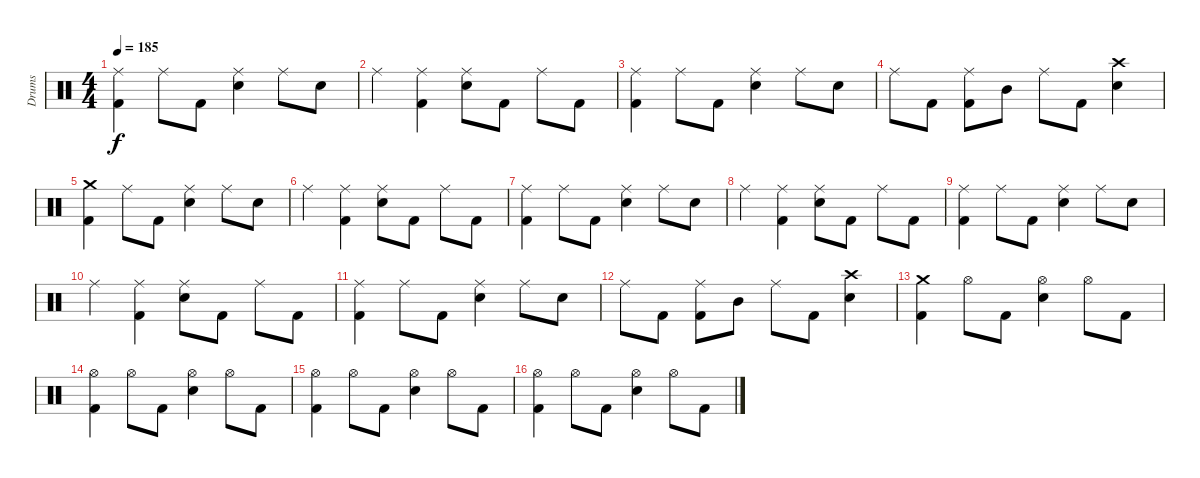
\track ("Drums" "Drums") {instrument percussion}
\staff {score}
\articulation defaults
\ts (4 4)
\tempo 185
\clef neutral
\ks c
("Ride (middle)" "Kick (hit) 2").4{dy f} "Ride (middle)".8 "Kick (hit) 2".8 ("Ride (middle)" "Electric Snare (hit)").4 "Ride (middle)".8 "Electric Snare (hit)".8 |
"Ride (middle)".4 ("Ride (middle)" "Kick (hit) 2").4 ("Ride (middle)" "Electric Snare (hit)").8 "Kick (hit) 2".8 "Ride (middle)".8 "Kick (hit) 2".8 |
("Ride (middle)" "Kick (hit) 2").4 "Ride (middle)".8 "Kick (hit) 2".8 ("Ride (middle)" "Electric Snare (hit)").4 "Ride (middle)".8 "Electric Snare (hit)".8 |
"Ride (middle)".8 "Kick (hit) 2".8 ("Ride (middle)" "Kick (hit) 2").8 "Mid Tom (hit)".8 "Ride (middle)".8 "Kick (hit) 2".8 ("Crash high (hit)" "Electric Snare (hit)").4 |
("Crash medium (hit)" "Kick (hit) 2").4 "Ride (middle)".8 "Kick (hit) 2".8 ("Ride (middle)" "Electric Snare (hit)").4 "Ride (middle)".8 "Electric Snare (hit)".8 |
"Ride (middle)".4 ("Ride (middle)" "Kick (hit) 2").4 ("Ride (middle)" "Electric Snare (hit)").8 "Kick (hit) 2".8 "Ride (middle)".8 "Kick (hit) 2".8 |
("Ride (middle)" "Kick (hit) 2").4 "Ride (middle)".8 "Kick (hit) 2".8 ("Ride (middle)" "Electric Snare (hit)").4 "Ride (middle)".8 "Electric Snare (hit)".8 |
"Ride (middle)".4 ("Ride (middle)" "Kick (hit) 2").4 ("Ride (middle)" "Electric Snare (hit)").8 "Kick (hit) 2".8 "Ride (middle)".8 "Kick (hit) 2".8 |
("Ride (middle)" "Kick (hit) 2").4 "Ride (middle)".8 "Kick (hit) 2".8 ("Ride (middle)" "Electric Snare (hit)").4 "Ride (middle)".8 "Electric Snare (hit)".8 |
"Ride (middle)".4 ("Ride (middle)" "Kick (hit) 2").4 ("Ride (middle)" "Electric Snare (hit)").8 "Kick (hit) 2".8 "Ride (middle)".8 "Kick (hit) 2".8 |
("Ride (middle)" "Kick (hit) 2").4 "Ride (middle)".8 "Kick (hit) 2".8 ("Ride (middle)" "Electric Snare (hit)").4 "Ride (middle)".8 "Electric Snare (hit)".8 |
"Ride (middle)".8 "Kick (hit) 2".8 ("Ride (middle)" "Kick (hit) 2").8 "Mid Tom (hit)".8 "Ride (middle)".8 "Kick (hit) 2".8 ("Crash high (hit)" "Electric Snare (hit)").4 |
("Crash medium (hit)" "Kick (hit) 2").4 "Hi-Hat (open)".8 "Kick (hit) 2".8 ("Hi-Hat (open)" "Electric Snare (hit)").4 "Hi-Hat (open)".8 "Kick (hit) 2".8 |
("Hi-Hat (open)" "Kick (hit) 2").4 "Hi-Hat (open)".8 "Kick (hit) 2".8 ("Hi-Hat (open)" "Electric Snare (hit)").4 "Hi-Hat (open)".8 "Kick (hit) 2".8 |
("Hi-Hat (open)" "Kick (hit) 2").4 "Hi-Hat (open)".8 "Kick (hit) 2".8 ("Hi-Hat (open)" "Electric Snare (hit)").4 "Hi-Hat (open)".8 "Kick (hit) 2".8 |
("Hi-Hat (open)" "Kick (hit) 2").4 "Hi-Hat (open)".8 "Kick (hit) 2".8 ("Hi-Hat (open)" "Electric Snare (hit)").4 "Hi-Hat (open)".8 "Kick (hit) 2".8
